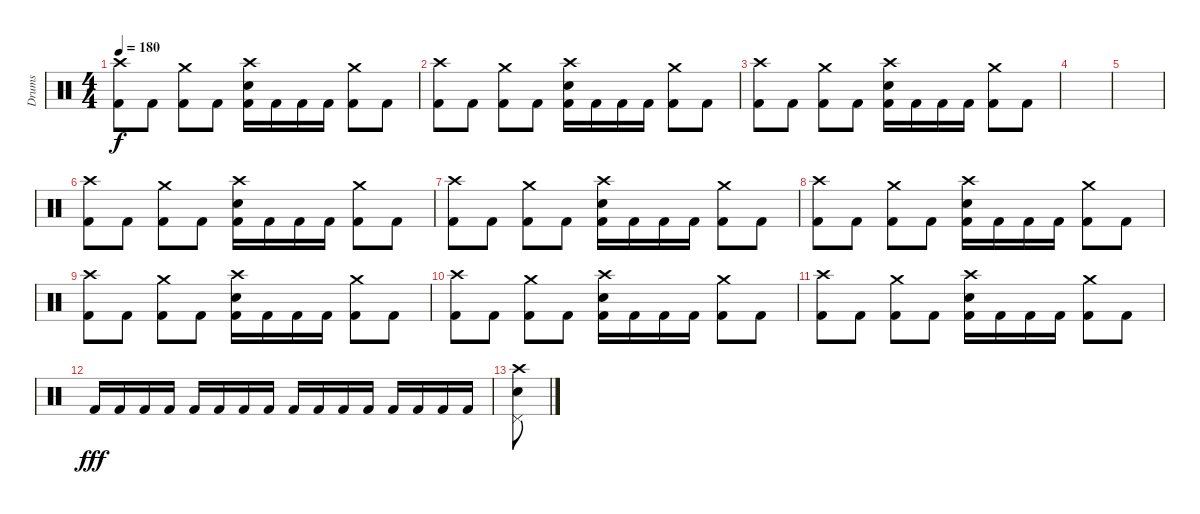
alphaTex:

\track ("Drums" "Drums") {instrument percussion}
\staff {score}
\articulation defaults
\ts (4 4)
\tempo 180
\clef neutral
\ks c
("Crash high (hit)" "Kick (hit) 2").8{dy f} "Kick (hit) 2".8 ("Crash medium (hit)" "Kick (hit) 2").8 "Kick (hit) 2".8 ("Crash high (hit)" "Electric Snare (hit)" "Kick (hit) 2").16 "Kick (hit) 2".16 "Kick (hit) 2".16 "Kick (hit) 2".16 ("Crash medium (hit)" "Kick (hit) 2").8 "Kick (hit) 2".8 |
("Crash high (hit)" "Kick (hit) 2").8 "Kick (hit) 2".8 ("Crash medium (hit)" "Kick (hit) 2").8 "Kick (hit) 2".8 ("Crash high (hit)" "Electric Snare (hit)" "Kick (hit) 2").16 "Kick (hit) 2".16 "Kick (hit) 2".16 "Kick (hit) 2".16 ("Crash medium (hit)" "Kick (hit) 2").8 "Kick (hit) 2".8 |
("Crash high (hit)" "Kick (hit) 2").8 "Kick (hit) 2".8 ("Crash medium (hit)" "Kick (hit) 2").8 "Kick (hit) 2".8 ("Crash high (hit)" "Electric Snare (hit)" "Kick (hit) 2").16 "Kick (hit) 2".16 "Kick (hit) 2".16 "Kick (hit) 2".16 ("Crash medium (hit)" "Kick (hit) 2").8 "Kick (hit) 2".8 |
|
|
("Crash high (hit)" "Kick (hit) 2").8 "Kick (hit) 2".8 ("Crash medium (hit)" "Kick (hit) 2").8 "Kick (hit) 2".8 ("Crash high (hit)" "Electric Snare (hit)" "Kick (hit) 2").16 "Kick (hit) 2".16 "Kick (hit) 2".16 "Kick (hit) 2".16 ("Crash medium (hit)" "Kick (hit) 2").8 "Kick (hit) 2".8 |
("Crash high (hit)" "Kick (hit) 2").8 "Kick (hit) 2".8 ("Crash medium (hit)" "Kick (hit) 2").8 "Kick (hit) 2".8 ("Crash high (hit)" "Electric Snare (hit)" "Kick (hit) 2").16 "Kick (hit) 2".16 "Kick (hit) 2".16 "Kick (hit) 2".16 ("Crash medium (hit)" "Kick (hit) 2").8 "Kick (hit) 2".8 |
("Crash high (hit)" "Kick (hit) 2").8 "Kick (hit) 2".8 ("Crash medium (hit)" "Kick (hit) 2").8 "Kick (hit) 2".8 ("Crash high (hit)" "Electric Snare (hit)" "Kick (hit) 2").16 "Kick (hit) 2".16 "Kick (hit) 2".16 "Kick (hit) 2".16 ("Crash medium (hit)" "Kick (hit) 2").8 "Kick (hit) 2".8 |
("Crash high (hit)" "Kick (hit) 2").8 "Kick (hit) 2".8 ("Crash medium (hit)" "Kick (hit) 2").8 "Kick (hit) 2".8 ("Crash high (hit)" "Electric Snare (hit)" "Kick (hit) 2").16 "Kick (hit) 2".16 "Kick (hit) 2".16 "Kick (hit) 2".16 ("Crash medium (hit)" "Kick (hit) 2").8 "Kick (hit) 2".8 |
("Crash high (hit)" "Kick (hit) 2").8 "Kick (hit) 2".8 ("Crash medium (hit)" "Kick (hit) 2").8 "Kick (hit) 2".8 ("Crash high (hit)" "Electric Snare (hit)" "Kick (hit) 2").16 "Kick (hit) 2".16 "Kick (hit) 2".16 "Kick (hit) 2".16 ("Crash medium (hit)" "Kick (hit) 2").8 "Kick (hit) 2".8 |
("Crash high (hit)" "Kick (hit) 2").8 "Kick (hit) 2".8 ("Crash medium (hit)" "Kick (hit) 2").8 "Kick (hit) 2".8 ("Crash high (hit)" "Electric Snare (hit)" "Kick (hit) 2").16 "Kick (hit) 2".16 "Kick (hit) 2".16 "Kick (hit) 2".16 ("Crash medium (hit)" "Kick (hit) 2").8 "Kick (hit) 2".8 |
"Kick (hit) 2".16{dy fff} "Kick (hit) 2".16 "Kick (hit) 2".16 "Kick (hit) 2".16 "Kick (hit) 2".16 "Kick (hit) 2".16 "Kick (hit) 2".16 "Kick (hit) 2".16 "Kick (hit) 2".16 "Kick (hit) 2".16 "Kick (hit) 2".16 "Kick (hit) 2".16 "Kick (hit) 2".16 "Kick (hit) 2".16 "Kick (hit) 2".16 "Kick (hit) 2".16 |
("Electric Snare (hit)" "Pedal Hi-Hat (hit)" "Crash high (hit)").8
